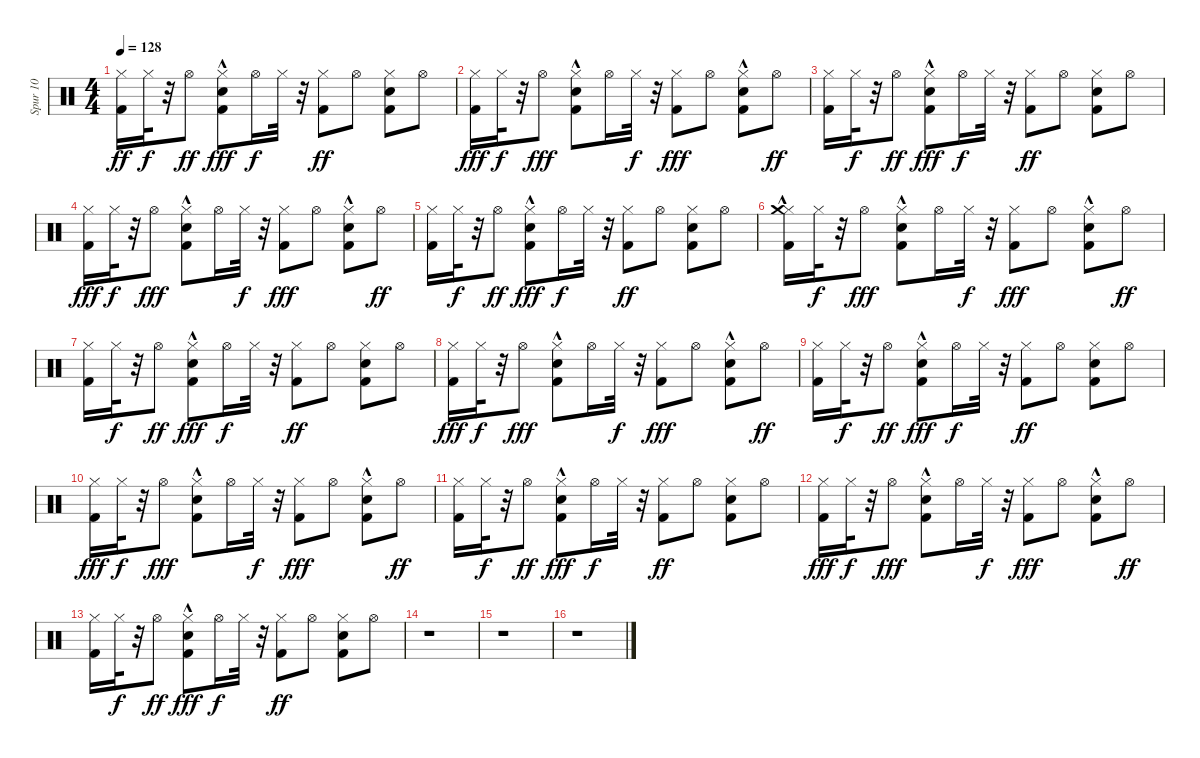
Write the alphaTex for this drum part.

\track ("Spur 10" "Spur 10") {instrument percussion}
\staff {score}
\articulation defaults
\ts (4 4)
\tempo 128
\clef neutral
\ks c
("Kick (hit) 2" "Hi-Hat (closed)").16{dy ff} "Hi-Hat (closed)".32{dy f} r.32 "Hi-Hat (open)".8{dy ff} ("Hand Clap (hit)" "Hi-Hat (closed)" "Kick (hit) 2"{hac}).8{dy fff} "Hi-Hat (open)".16{dy f} "Hi-Hat (closed)".32 r.32 ("Kick (hit) 2" "Hi-Hat (closed)").8{dy ff} "Hi-Hat (open)".8 ("Kick (hit) 2" "Hand Clap (hit)" "Hi-Hat (closed)").8 "Hi-Hat (open)".8 |
("Kick (hit) 2" "Hi-Hat (closed)").16{dy fff} "Hi-Hat (closed)".32{dy f} r.32 "Hi-Hat (open)".8{dy fff} ("Kick (hit) 2"{hac} "Hi-Hat (closed)" "Hand Clap (hit)").8 "Hi-Hat (open)".16 "Hi-Hat (closed)".32{dy f} r.32 ("Hi-Hat (closed)" "Kick (hit) 2").8{dy fff} "Hi-Hat (open)".8 ("Hi-Hat (closed)" "Hand Clap (hit)" "Kick (hit) 2"{hac}).8 "Hi-Hat (open)".8{dy ff} |
("Kick (hit) 2" "Hi-Hat (closed)").16 "Hi-Hat (closed)".32{dy f} r.32 "Hi-Hat (open)".8{dy ff} ("Hand Clap (hit)" "Hi-Hat (closed)" "Kick (hit) 2"{hac}).8{dy fff} "Hi-Hat (open)".16{dy f} "Hi-Hat (closed)".32 r.32 ("Kick (hit) 2" "Hi-Hat (closed)").8{dy ff} "Hi-Hat (open)".8 ("Kick (hit) 2" "Hand Clap (hit)" "Hi-Hat (closed)").8 "Hi-Hat (open)".8 |
("Kick (hit) 2" "Hi-Hat (closed)").16{dy fff} "Hi-Hat (closed)".32{dy f} r.32 "Hi-Hat (open)".8{dy fff} ("Kick (hit) 2"{hac} "Hi-Hat (closed)" "Hand Clap (hit)").8 "Hi-Hat (open)".16 "Hi-Hat (closed)".32{dy f} r.32 ("Hi-Hat (closed)" "Kick (hit) 2").8{dy fff} "Hi-Hat (open)".8 ("Hi-Hat (closed)" "Hand Clap (hit)" "Kick (hit) 2"{hac}).8 "Hi-Hat (open)".8{dy ff} |
("Kick (hit) 2" "Hi-Hat (closed)").16 "Hi-Hat (closed)".32{dy f} r.32 "Hi-Hat (open)".8{dy ff} ("Hand Clap (hit)" "Hi-Hat (closed)" "Kick (hit) 2"{hac}).8{dy fff} "Hi-Hat (open)".16{dy f} "Hi-Hat (closed)".32 r.32 ("Kick (hit) 2" "Hi-Hat (closed)").8{dy ff} "Hi-Hat (open)".8 ("Kick (hit) 2" "Hand Clap (hit)" "Hi-Hat (closed)").8 "Hi-Hat (open)".8 |
("Kick (hit) 2" "Hi-Hat (closed)" "Crash medium (hit)"{hac}).16 "Hi-Hat (closed)".32{dy f} r.32 "Hi-Hat (open)".8{dy fff} ("Kick (hit) 2"{hac} "Hi-Hat (closed)" "Hand Clap (hit)").8 "Hi-Hat (open)".16 "Hi-Hat (closed)".32{dy f} r.32 ("Hi-Hat (closed)" "Kick (hit) 2").8{dy fff} "Hi-Hat (open)".8 ("Hi-Hat (closed)" "Hand Clap (hit)" "Kick (hit) 2"{hac}).8 "Hi-Hat (open)".8{dy ff} |
("Kick (hit) 2" "Hi-Hat (closed)").16 "Hi-Hat (closed)".32{dy f} r.32 "Hi-Hat (open)".8{dy ff} ("Hand Clap (hit)" "Hi-Hat (closed)" "Kick (hit) 2"{hac}).8{dy fff} "Hi-Hat (open)".16{dy f} "Hi-Hat (closed)".32 r.32 ("Kick (hit) 2" "Hi-Hat (closed)").8{dy ff} "Hi-Hat (open)".8 ("Kick (hit) 2" "Hand Clap (hit)" "Hi-Hat (closed)").8 "Hi-Hat (open)".8 |
("Kick (hit) 2" "Hi-Hat (closed)").16{dy fff} "Hi-Hat (closed)".32{dy f} r.32 "Hi-Hat (open)".8{dy fff} ("Kick (hit) 2"{hac} "Hi-Hat (closed)" "Hand Clap (hit)").8 "Hi-Hat (open)".16 "Hi-Hat (closed)".32{dy f} r.32 ("Hi-Hat (closed)" "Kick (hit) 2").8{dy fff} "Hi-Hat (open)".8 ("Hi-Hat (closed)" "Hand Clap (hit)" "Kick (hit) 2"{hac}).8 "Hi-Hat (open)".8{dy ff} |
("Kick (hit) 2" "Hi-Hat (closed)").16 "Hi-Hat (closed)".32{dy f} r.32 "Hi-Hat (open)".8{dy ff} ("Hand Clap (hit)" "Hi-Hat (closed)" "Kick (hit) 2"{hac}).8{dy fff} "Hi-Hat (open)".16{dy f} "Hi-Hat (closed)".32 r.32 ("Kick (hit) 2" "Hi-Hat (closed)").8{dy ff} "Hi-Hat (open)".8 ("Kick (hit) 2" "Hand Clap (hit)" "Hi-Hat (closed)").8 "Hi-Hat (open)".8 |
("Kick (hit) 2" "Hi-Hat (closed)").16{dy fff} "Hi-Hat (closed)".32{dy f} r.32 "Hi-Hat (open)".8{dy fff} ("Kick (hit) 2"{hac} "Hi-Hat (closed)" "Hand Clap (hit)").8 "Hi-Hat (open)".16 "Hi-Hat (closed)".32{dy f} r.32 ("Hi-Hat (closed)" "Kick (hit) 2").8{dy fff} "Hi-Hat (open)".8 ("Hi-Hat (closed)" "Hand Clap (hit)" "Kick (hit) 2"{hac}).8 "Hi-Hat (open)".8{dy ff} |
("Kick (hit) 2" "Hi-Hat (closed)").16 "Hi-Hat (closed)".32{dy f} r.32 "Hi-Hat (open)".8{dy ff} ("Hand Clap (hit)" "Hi-Hat (closed)" "Kick (hit) 2"{hac}).8{dy fff} "Hi-Hat (open)".16{dy f} "Hi-Hat (closed)".32 r.32 ("Kick (hit) 2" "Hi-Hat (closed)").8{dy ff} "Hi-Hat (open)".8 ("Kick (hit) 2" "Hand Clap (hit)" "Hi-Hat (closed)").8 "Hi-Hat (open)".8 |
("Kick (hit) 2" "Hi-Hat (closed)").16{dy fff} "Hi-Hat (closed)".32{dy f} r.32 "Hi-Hat (open)".8{dy fff} ("Kick (hit) 2"{hac} "Hi-Hat (closed)" "Hand Clap (hit)").8 "Hi-Hat (open)".16 "Hi-Hat (closed)".32{dy f} r.32 ("Hi-Hat (closed)" "Kick (hit) 2").8{dy fff} "Hi-Hat (open)".8 ("Hi-Hat (closed)" "Hand Clap (hit)" "Kick (hit) 2"{hac}).8 "Hi-Hat (open)".8{dy ff} |
("Kick (hit) 2" "Hi-Hat (closed)").16 "Hi-Hat (closed)".32{dy f} r.32 "Hi-Hat (open)".8{dy ff} ("Hand Clap (hit)" "Hi-Hat (closed)" "Kick (hit) 2"{hac}).8{dy fff} "Hi-Hat (open)".16{dy f} "Hi-Hat (closed)".32 r.32 ("Kick (hit) 2" "Hi-Hat (closed)").8{dy ff} "Hi-Hat (open)".8 ("Kick (hit) 2" "Hand Clap (hit)" "Hi-Hat (closed)").8 "Hi-Hat (open)".8 |
r.1 |
r.1 |
r.1
